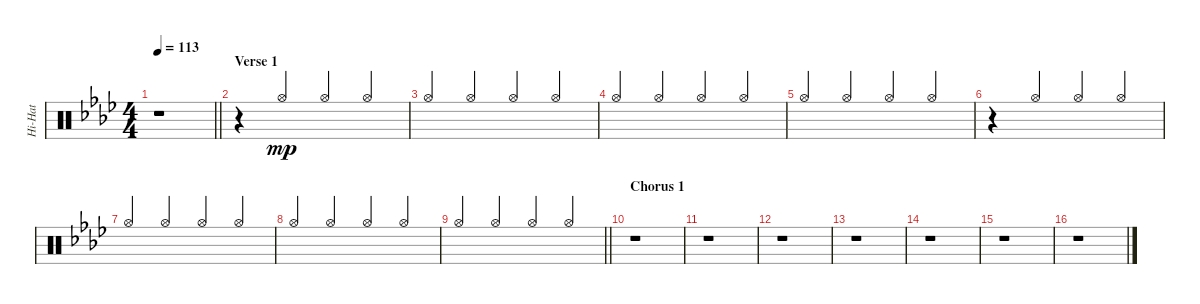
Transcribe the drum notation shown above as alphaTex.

\track ("Hi-Hat" "Hi-Hat") {instrument percussion}
\staff {score}
\articulation defaults
\ts (4 4)
\tempo 113
\clef neutral
\barLineRight lightlight
\ks fminor
r.1{dy mp} |
\section ("" "Verse 1")
r.4{volume 5} "Hi-Hat (open)".4{beam Up} "Hi-Hat (open)".4{beam Up} "Hi-Hat (open)".4{beam Up} |
"Hi-Hat (open)".4{beam Up} "Hi-Hat (open)".4{beam Up} "Hi-Hat (open)".4{beam Up} "Hi-Hat (open)".4{beam Up} |
"Hi-Hat (open)".4{beam Up} "Hi-Hat (open)".4{beam Up} "Hi-Hat (open)".4{beam Up} "Hi-Hat (open)".4{beam Up} |
"Hi-Hat (open)".4{beam Up} "Hi-Hat (open)".4{beam Up} "Hi-Hat (open)".4{beam Up} "Hi-Hat (open)".4{beam Up} |
r.4 "Hi-Hat (open)".4{beam Up} "Hi-Hat (open)".4{beam Up} "Hi-Hat (open)".4{beam Up} |
"Hi-Hat (open)".4{beam Up} "Hi-Hat (open)".4{beam Up} "Hi-Hat (open)".4{beam Up} "Hi-Hat (open)".4{beam Up} |
"Hi-Hat (open)".4{beam Up} "Hi-Hat (open)".4{beam Up} "Hi-Hat (open)".4{beam Up} "Hi-Hat (open)".4{beam Up} |
\barLineRight lightlight "Hi-Hat (open)".4{beam Up} "Hi-Hat (open)".4{beam Up} "Hi-Hat (open)".4{beam Up} "Hi-Hat (open)".4{beam Up}
|
\section ("" "Chorus 1")
r.1 |
r.1 |
r.1 |
r.1 |
r.1 |
r.1 |
r.1
